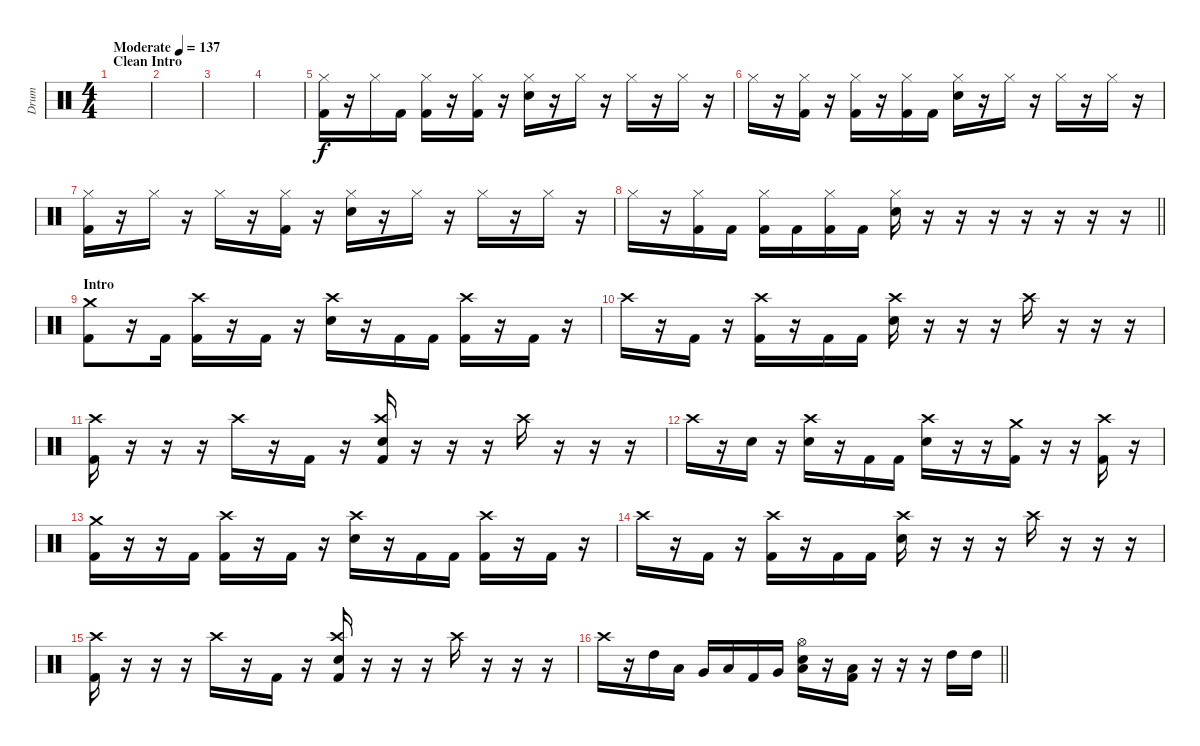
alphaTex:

\track ("Drum" "Drum") {instrument percussion}
\staff {score}
\articulation defaults
\ts (4 4)
\section ("" "Clean Intro")
\tempo (137 "Moderate")
\clef neutral
\ks c
|
|
|
|
("Hi-Hat (closed)" "Kick (hit) 2").16 r.16 "Hi-Hat (closed)".16 "Kick (hit) 2".16 ("Hi-Hat (closed)" "Kick (hit) 2").16 r.16 ("Hi-Hat (closed)" "Kick (hit) 2").16 r.16 ("Hi-Hat (closed)" "Hand Clap (hit)").16 r.16 "Hi-Hat (closed)".16 r.16 "Hi-Hat (closed)".16 r.16 "Hi-Hat (closed)".16 r.16 |
"Hi-Hat (closed)".16 r.16 ("Hi-Hat (closed)" "Kick (hit) 2").16 r.16 ("Hi-Hat (closed)" "Kick (hit) 2").16 r.16 ("Hi-Hat (closed)" "Kick (hit) 2").16 "Kick (hit) 2".16 ("Hi-Hat (closed)" "Hand Clap (hit)").16 r.16 "Hi-Hat (closed)".16 r.16 "Hi-Hat (closed)".16 r.16 "Hi-Hat (closed)".16 r.16 |
("Hi-Hat (closed)" "Kick (hit) 2").16 r.16 "Hi-Hat (closed)".16 r.16 "Hi-Hat (closed)".16 r.16 ("Hi-Hat (closed)" "Kick (hit) 2").16 r.16 ("Hi-Hat (closed)" "Hand Clap (hit)").16 r.16 "Hi-Hat (closed)".16 r.16 "Hi-Hat (closed)".16 r.16 "Hi-Hat (closed)".16 r.16 |
\barLineRight lightlight "Hi-Hat (closed)".16
r.16 ("Hi-Hat (closed)" "Kick (hit) 2").16 "Kick (hit) 2".16 ("Hi-Hat (closed)" "Kick (hit) 2").16 "Kick (hit) 2".16 ("Hi-Hat (closed)" "Kick (hit) 2").16 "Kick (hit) 2".16 ("Hi-Hat (closed)" "Hand Clap (hit)").16 r.16 r.16 r.16 r.16 r.16 r.16 r.16 |
\section ("" "Intro")
("Crash medium (hit)" "Kick (hit) 2").8 r.16 "Kick (hit) 2".16 ("Crash high (hit)" "Kick (hit) 2").16 r.16 "Kick (hit) 2".16 r.16 ("Crash high (hit)" "Electric Snare (hit)").16 r.16 "Kick (hit) 2".16 "Kick (hit) 2".16 ("Crash high (hit)" "Kick (hit) 2").16 r.16 "Kick (hit) 2".16 r.16 |
"Crash high (hit)".16 r.16 "Kick (hit) 2".16 r.16 ("Crash high (hit)" "Kick (hit) 2").16 r.16 "Kick (hit) 2".16 "Kick (hit) 2".16 ("Crash high (hit)" "Electric Snare (hit)").16 r.16 r.16 r.16 "Crash high (hit)".16 r.16 r.16 r.16 |
("Crash high (hit)" "Kick (hit) 2").16 r.16 r.16 r.16 "Crash high (hit)".16 r.16 "Kick (hit) 2".16 r.16 ("Crash high (hit)" "Electric Snare (hit)" "Kick (hit) 2").16 r.16 r.16 r.16 "Crash high (hit)".16 r.16 r.16 r.16 |
"Crash high (hit)".16 r.16 "Electric Snare (hit)".16 r.16 ("Crash high (hit)" "Electric Snare (hit)").16 r.16 "Kick (hit) 2".16 "Kick (hit) 2".16 ("Crash high (hit)" "Electric Snare (hit)").16 r.16 r.16 ("Crash medium (hit)" "Kick (hit) 2").16 r.16 r.16 ("Crash high (hit)" "Kick (hit) 2").16 r.16 |
("Crash medium (hit)" "Kick (hit) 2").16 r.16 r.16 "Kick (hit) 2".16 ("Crash high (hit)" "Kick (hit) 2").16 r.16 "Kick (hit) 2".16 r.16 ("Crash high (hit)" "Electric Snare (hit)").16 r.16 "Kick (hit) 2".16 "Kick (hit) 2".16 ("Crash high (hit)" "Kick (hit) 2").16 r.16 "Kick (hit) 2".16 r.16 |
"Crash high (hit)".16 r.16 "Kick (hit) 2".16 r.16 ("Crash high (hit)" "Kick (hit) 2").16 r.16 "Kick (hit) 2".16 "Kick (hit) 2".16 ("Crash high (hit)" "Electric Snare (hit)").16 r.16 r.16 r.16 "Crash high (hit)".16 r.16 r.16 r.16 |
("Crash high (hit)" "Kick (hit) 2").16 r.16 r.16 r.16 "Crash high (hit)".16 r.16 "Kick (hit) 2".16 r.16 ("Crash high (hit)" "Electric Snare (hit)" "Kick (hit) 2").16 r.16 r.16 r.16 "Crash high (hit)".16 r.16 r.16 r.16 |
\barLineRight lightlight "Crash high (hit)".16
r.16 "High Tom (hit)".16 "Low Tom (hit)".16 "Very Low Tom (hit)".16 "Low Floor Tom (hit)".16 "Kick (hit) 2".16 "Very Low Tom (hit)".16 ("Hi-Hat (open)" "Low Floor Tom (hit)" "Electric Snare (hit)").16 r.16 ("Low Floor Tom (hit)" "Kick (hit) 2").16 r.16 r.16 r.16 "High Tom (hit)".16 "High Tom (hit)".16
